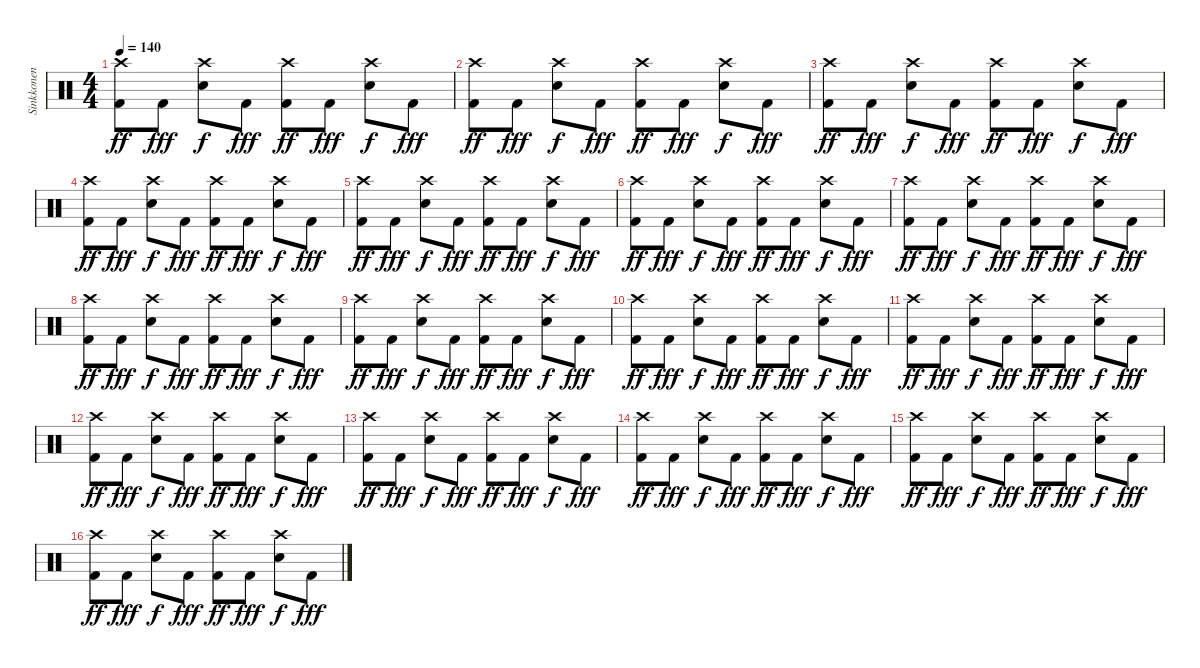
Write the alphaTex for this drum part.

\track ("Sinkkonen" "Sinkkonen") {instrument percussion}
\staff {score}
\articulation defaults
\ts (4 4)
\tempo 140
\clef neutral
\ks c
("Kick (hit) 2" "Crash high (hit)").8{dy ff} "Kick (hit) 2".8{dy fff} ("Crash high (hit)" "Snare (hit) 2").8{dy f} "Kick (hit) 2".8{dy fff} ("Kick (hit) 2" "Crash high (hit)").8{dy ff} "Kick (hit) 2".8{dy fff} ("Crash high (hit)" "Snare (hit) 2").8{dy f} "Kick (hit) 2".8{dy fff} |
("Kick (hit) 2" "Crash high (hit)").8{dy ff} "Kick (hit) 2".8{dy fff} ("Crash high (hit)" "Snare (hit) 2").8{dy f} "Kick (hit) 2".8{dy fff} ("Kick (hit) 2" "Crash high (hit)").8{dy ff} "Kick (hit) 2".8{dy fff} ("Crash high (hit)" "Snare (hit) 2").8{dy f} "Kick (hit) 2".8{dy fff} |
("Kick (hit) 2" "Crash high (hit)").8{dy ff volume 7} "Kick (hit) 2".8{dy fff} ("Crash high (hit)" "Snare (hit) 2").8{dy f} "Kick (hit) 2".8{dy fff} ("Kick (hit) 2" "Crash high (hit)").8{dy ff} "Kick (hit) 2".8{dy fff} ("Crash high (hit)" "Snare (hit) 2").8{dy f} "Kick (hit) 2".8{dy fff} |
("Kick (hit) 2" "Crash high (hit)").8{dy ff} "Kick (hit) 2".8{dy fff} ("Crash high (hit)" "Snare (hit) 2").8{dy f} "Kick (hit) 2".8{dy fff} ("Kick (hit) 2" "Crash high (hit)").8{dy ff} "Kick (hit) 2".8{dy fff} ("Crash high (hit)" "Snare (hit) 2").8{dy f} "Kick (hit) 2".8{dy fff} |
("Kick (hit) 2" "Crash high (hit)").8{dy ff} "Kick (hit) 2".8{dy fff} ("Crash high (hit)" "Snare (hit) 2").8{dy f} "Kick (hit) 2".8{dy fff} ("Kick (hit) 2" "Crash high (hit)").8{dy ff} "Kick (hit) 2".8{dy fff} ("Crash high (hit)" "Snare (hit) 2").8{dy f} "Kick (hit) 2".8{dy fff} |
("Kick (hit) 2" "Crash high (hit)").8{dy ff} "Kick (hit) 2".8{dy fff} ("Crash high (hit)" "Snare (hit) 2").8{dy f} "Kick (hit) 2".8{dy fff} ("Kick (hit) 2" "Crash high (hit)").8{dy ff} "Kick (hit) 2".8{dy fff} ("Crash high (hit)" "Snare (hit) 2").8{dy f} "Kick (hit) 2".8{dy fff} |
("Kick (hit) 2" "Crash high (hit)").8{dy ff volume 5} "Kick (hit) 2".8{dy fff} ("Crash high (hit)" "Snare (hit) 2").8{dy f} "Kick (hit) 2".8{dy fff} ("Kick (hit) 2" "Crash high (hit)").8{dy ff} "Kick (hit) 2".8{dy fff} ("Crash high (hit)" "Snare (hit) 2").8{dy f} "Kick (hit) 2".8{dy fff} |
("Kick (hit) 2" "Crash high (hit)").8{dy ff} "Kick (hit) 2".8{dy fff} ("Crash high (hit)" "Snare (hit) 2").8{dy f} "Kick (hit) 2".8{dy fff} ("Kick (hit) 2" "Crash high (hit)").8{dy ff} "Kick (hit) 2".8{dy fff} ("Crash high (hit)" "Snare (hit) 2").8{dy f} "Kick (hit) 2".8{dy fff} |
("Kick (hit) 2" "Crash high (hit)").8{dy ff} "Kick (hit) 2".8{dy fff} ("Crash high (hit)" "Snare (hit) 2").8{dy f} "Kick (hit) 2".8{dy fff} ("Kick (hit) 2" "Crash high (hit)").8{dy ff} "Kick (hit) 2".8{dy fff} ("Crash high (hit)" "Snare (hit) 2").8{dy f} "Kick (hit) 2".8{dy fff} |
("Kick (hit) 2" "Crash high (hit)").8{dy ff} "Kick (hit) 2".8{dy fff} ("Crash high (hit)" "Snare (hit) 2").8{dy f} "Kick (hit) 2".8{dy fff} ("Kick (hit) 2" "Crash high (hit)").8{dy ff} "Kick (hit) 2".8{dy fff} ("Crash high (hit)" "Snare (hit) 2").8{dy f} "Kick (hit) 2".8{dy fff} |
("Kick (hit) 2" "Crash high (hit)").8{dy ff volume 2} "Kick (hit) 2".8{dy fff} ("Crash high (hit)" "Snare (hit) 2").8{dy f} "Kick (hit) 2".8{dy fff} ("Kick (hit) 2" "Crash high (hit)").8{dy ff} "Kick (hit) 2".8{dy fff} ("Crash high (hit)" "Snare (hit) 2").8{dy f} "Kick (hit) 2".8{dy fff} |
("Kick (hit) 2" "Crash high (hit)").8{dy ff} "Kick (hit) 2".8{dy fff} ("Crash high (hit)" "Snare (hit) 2").8{dy f} "Kick (hit) 2".8{dy fff} ("Kick (hit) 2" "Crash high (hit)").8{dy ff} "Kick (hit) 2".8{dy fff} ("Crash high (hit)" "Snare (hit) 2").8{dy f} "Kick (hit) 2".8{dy fff} |
("Kick (hit) 2" "Crash high (hit)").8{dy ff} "Kick (hit) 2".8{dy fff} ("Crash high (hit)" "Snare (hit) 2").8{dy f} "Kick (hit) 2".8{dy fff} ("Kick (hit) 2" "Crash high (hit)").8{dy ff} "Kick (hit) 2".8{dy fff} ("Crash high (hit)" "Snare (hit) 2").8{dy f} "Kick (hit) 2".8{dy fff} |
("Kick (hit) 2" "Crash high (hit)").8{dy ff} "Kick (hit) 2".8{dy fff} ("Crash high (hit)" "Snare (hit) 2").8{dy f} "Kick (hit) 2".8{dy fff} ("Kick (hit) 2" "Crash high (hit)").8{dy ff} "Kick (hit) 2".8{dy fff} ("Crash high (hit)" "Snare (hit) 2").8{dy f} "Kick (hit) 2".8{dy fff} |
("Kick (hit) 2" "Crash high (hit)").8{dy ff volume 0} "Kick (hit) 2".8{dy fff} ("Crash high (hit)" "Snare (hit) 2").8{dy f} "Kick (hit) 2".8{dy fff} ("Kick (hit) 2" "Crash high (hit)").8{dy ff} "Kick (hit) 2".8{dy fff} ("Crash high (hit)" "Snare (hit) 2").8{dy f} "Kick (hit) 2".8{dy fff} |
("Kick (hit) 2" "Crash high (hit)").8{dy ff} "Kick (hit) 2".8{dy fff} ("Crash high (hit)" "Snare (hit) 2").8{dy f} "Kick (hit) 2".8{dy fff} ("Kick (hit) 2" "Crash high (hit)").8{dy ff} "Kick (hit) 2".8{dy fff} ("Crash high (hit)" "Snare (hit) 2").8{dy f} "Kick (hit) 2".8{dy fff}
